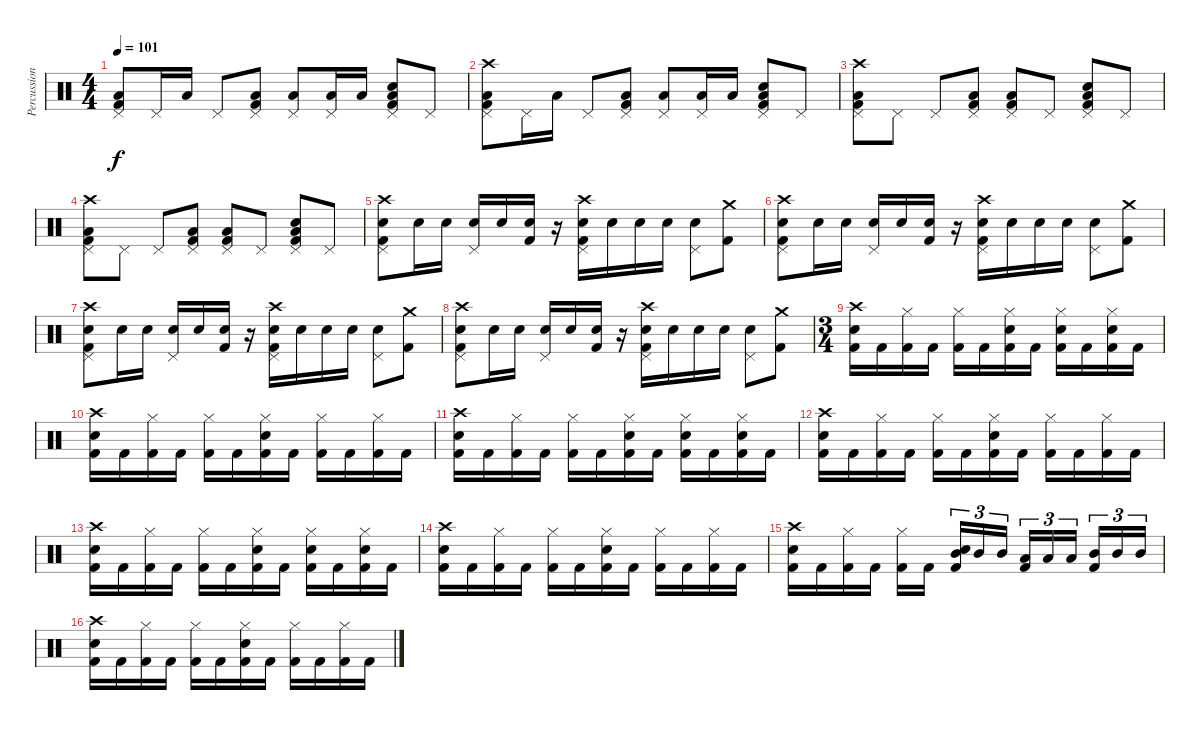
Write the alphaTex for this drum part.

\track ("Percussion" "Percussion") {instrument percussion}
\staff {score}
\articulation defaults
\ts (4 4)
\tempo 101
\clef neutral
\ks c
("Kick (hit) 2" "Low Floor Tom (hit)" "Pedal Hi-Hat (hit)").8{dy f} "Pedal Hi-Hat (hit)".16 "Low Floor Tom (hit)".16 "Pedal Hi-Hat (hit)".8 ("Kick (hit) 2" "Low Floor Tom (hit)" "Pedal Hi-Hat (hit)").8 ("Low Floor Tom (hit)" "Pedal Hi-Hat (hit)").8 ("Low Floor Tom (hit)" "Pedal Hi-Hat (hit)").16 "Low Floor Tom (hit)".16 ("Kick (hit) 2" "Snare (hit) 2" "Low Floor Tom (hit)" "Pedal Hi-Hat (hit)").8 "Pedal Hi-Hat (hit)".8 |
("Kick (hit) 2" "Low Floor Tom (hit)" "Pedal Hi-Hat (hit)" "Crash high (hit)").8 "Pedal Hi-Hat (hit)".16 "Low Floor Tom (hit)".16 "Pedal Hi-Hat (hit)".8 ("Kick (hit) 2" "Low Floor Tom (hit)" "Pedal Hi-Hat (hit)").8 ("Low Floor Tom (hit)" "Pedal Hi-Hat (hit)").8 ("Low Floor Tom (hit)" "Pedal Hi-Hat (hit)").16 "Low Floor Tom (hit)".16 ("Kick (hit) 2" "Snare (hit) 2" "Low Floor Tom (hit)" "Pedal Hi-Hat (hit)").8 "Pedal Hi-Hat (hit)".8 |
("Kick (hit) 2" "Low Floor Tom (hit)" "Pedal Hi-Hat (hit)" "Crash high (hit)").8 "Pedal Hi-Hat (hit)".8 "Pedal Hi-Hat (hit)".8 ("Kick (hit) 2" "Low Floor Tom (hit)" "Pedal Hi-Hat (hit)").8 ("Kick (hit) 2" "Low Floor Tom (hit)" "Pedal Hi-Hat (hit)").8 "Pedal Hi-Hat (hit)".8 ("Kick (hit) 2" "Snare (hit) 2" "Low Floor Tom (hit)" "Pedal Hi-Hat (hit)").8 "Pedal Hi-Hat (hit)".8 |
("Kick (hit) 2" "Low Floor Tom (hit)" "Pedal Hi-Hat (hit)" "Crash high (hit)").8 "Pedal Hi-Hat (hit)".8 "Pedal Hi-Hat (hit)".8 ("Kick (hit) 2" "Low Floor Tom (hit)" "Pedal Hi-Hat (hit)").8 ("Kick (hit) 2" "Low Floor Tom (hit)" "Pedal Hi-Hat (hit)").8 "Pedal Hi-Hat (hit)".8 ("Kick (hit) 2" "Snare (hit) 2" "Low Floor Tom (hit)" "Pedal Hi-Hat (hit)").8 "Pedal Hi-Hat (hit)".8 |
("Kick (hit) 2" "Snare (hit) 2" "Pedal Hi-Hat (hit)" "Crash high (hit)").8 "Snare (hit) 2".16 "Snare (hit) 2".16 ("Snare (hit) 2" "Pedal Hi-Hat (hit)").16 "Snare (hit) 2".16 ("Kick (hit) 2" "Snare (hit) 2").16 r.16 ("Kick (hit) 2" "Snare (hit) 2" "Pedal Hi-Hat (hit)" "Crash high (hit)").16 "Snare (hit) 2".16 "Snare (hit) 2".16 "Snare (hit) 2".16 ("Snare (hit) 2" "Pedal Hi-Hat (hit)").8 ("Kick (hit) 2" "Crash medium (hit)").8 |
("Kick (hit) 2" "Snare (hit) 2" "Pedal Hi-Hat (hit)" "Crash high (hit)").8 "Snare (hit) 2".16 "Snare (hit) 2".16 ("Snare (hit) 2" "Pedal Hi-Hat (hit)").16 "Snare (hit) 2".16 ("Kick (hit) 2" "Snare (hit) 2").16 r.16 ("Kick (hit) 2" "Snare (hit) 2" "Pedal Hi-Hat (hit)" "Crash high (hit)").16 "Snare (hit) 2".16 "Snare (hit) 2".16 "Snare (hit) 2".16 ("Snare (hit) 2" "Pedal Hi-Hat (hit)").8 ("Kick (hit) 2" "Crash medium (hit)").8 |
("Kick (hit) 2" "Snare (hit) 2" "Pedal Hi-Hat (hit)" "Crash high (hit)").8 "Snare (hit) 2".16 "Snare (hit) 2".16 ("Snare (hit) 2" "Pedal Hi-Hat (hit)").16 "Snare (hit) 2".16 ("Kick (hit) 2" "Snare (hit) 2").16 r.16 ("Kick (hit) 2" "Snare (hit) 2" "Pedal Hi-Hat (hit)" "Crash high (hit)").16 "Snare (hit) 2".16 "Snare (hit) 2".16 "Snare (hit) 2".16 ("Snare (hit) 2" "Pedal Hi-Hat (hit)").8 ("Kick (hit) 2" "Crash medium (hit)").8 |
("Kick (hit) 2" "Snare (hit) 2" "Pedal Hi-Hat (hit)" "Crash high (hit)").8 "Snare (hit) 2".16 "Snare (hit) 2".16 ("Snare (hit) 2" "Pedal Hi-Hat (hit)").16 "Snare (hit) 2".16 ("Kick (hit) 2" "Snare (hit) 2").16 r.16 ("Kick (hit) 2" "Snare (hit) 2" "Pedal Hi-Hat (hit)" "Crash high (hit)").16 "Snare (hit) 2".16 "Snare (hit) 2".16 "Snare (hit) 2".16 ("Snare (hit) 2" "Pedal Hi-Hat (hit)").8 ("Kick (hit) 2" "Crash medium (hit)").8 |
\ts (3 4)
("Kick (hit) 2" "Snare (hit) 2" "Crash high (hit)").16 "Kick (hit) 2".16 ("Kick (hit) 2" "Hi-Hat (closed)").16 "Kick (hit) 2".16 ("Kick (hit) 2" "Hi-Hat (closed)").16 "Kick (hit) 2".16 ("Kick (hit) 2" "Snare (hit) 2" "Hi-Hat (closed)").16 "Kick (hit) 2".16 ("Kick (hit) 2" "Snare (hit) 2" "Hi-Hat (closed)").16 "Kick (hit) 2".16 ("Kick (hit) 2" "Snare (hit) 2" "Hi-Hat (closed)").16 "Kick (hit) 2".16 |
("Kick (hit) 2" "Snare (hit) 2" "Crash high (hit)").16 "Kick (hit) 2".16 ("Kick (hit) 2" "Hi-Hat (closed)").16 "Kick (hit) 2".16 ("Kick (hit) 2" "Hi-Hat (closed)").16 "Kick (hit) 2".16 ("Kick (hit) 2" "Snare (hit) 2" "Hi-Hat (closed)").16 "Kick (hit) 2".16 ("Kick (hit) 2" "Hi-Hat (closed)").16 "Kick (hit) 2".16 ("Kick (hit) 2" "Hi-Hat (closed)").16 "Kick (hit) 2".16 |
("Kick (hit) 2" "Snare (hit) 2" "Crash high (hit)").16 "Kick (hit) 2".16 ("Kick (hit) 2" "Hi-Hat (closed)").16 "Kick (hit) 2".16 ("Kick (hit) 2" "Hi-Hat (closed)").16 "Kick (hit) 2".16 ("Kick (hit) 2" "Snare (hit) 2" "Hi-Hat (closed)").16 "Kick (hit) 2".16 ("Kick (hit) 2" "Snare (hit) 2" "Hi-Hat (closed)").16 "Kick (hit) 2".16 ("Kick (hit) 2" "Snare (hit) 2" "Hi-Hat (closed)").16 "Kick (hit) 2".16 |
("Kick (hit) 2" "Snare (hit) 2" "Crash high (hit)").16 "Kick (hit) 2".16 ("Kick (hit) 2" "Hi-Hat (closed)").16 "Kick (hit) 2".16 ("Kick (hit) 2" "Hi-Hat (closed)").16 "Kick (hit) 2".16 ("Kick (hit) 2" "Snare (hit) 2" "Hi-Hat (closed)").16 "Kick (hit) 2".16 ("Kick (hit) 2" "Hi-Hat (closed)").16 "Kick (hit) 2".16 ("Kick (hit) 2" "Hi-Hat (closed)").16 "Kick (hit) 2".16 |
("Kick (hit) 2" "Snare (hit) 2" "Crash high (hit)").16 "Kick (hit) 2".16 ("Kick (hit) 2" "Hi-Hat (closed)").16 "Kick (hit) 2".16 ("Kick (hit) 2" "Hi-Hat (closed)").16 "Kick (hit) 2".16 ("Kick (hit) 2" "Snare (hit) 2" "Hi-Hat (closed)").16 "Kick (hit) 2".16 ("Kick (hit) 2" "Snare (hit) 2" "Hi-Hat (closed)").16 "Kick (hit) 2".16 ("Kick (hit) 2" "Snare (hit) 2" "Hi-Hat (closed)").16 "Kick (hit) 2".16 |
("Kick (hit) 2" "Snare (hit) 2" "Crash high (hit)").16 "Kick (hit) 2".16 ("Kick (hit) 2" "Hi-Hat (closed)").16 "Kick (hit) 2".16 ("Kick (hit) 2" "Hi-Hat (closed)").16 "Kick (hit) 2".16 ("Kick (hit) 2" "Snare (hit) 2" "Hi-Hat (closed)").16 "Kick (hit) 2".16 ("Kick (hit) 2" "Hi-Hat (closed)").16 "Kick (hit) 2".16 ("Kick (hit) 2" "Hi-Hat (closed)").16 "Kick (hit) 2".16 |
("Kick (hit) 2" "Snare (hit) 2" "Crash high (hit)").16 "Kick (hit) 2".16 ("Kick (hit) 2" "Hi-Hat (closed)").16 "Kick (hit) 2".16 ("Kick (hit) 2" "Hi-Hat (closed)").16 "Kick (hit) 2".16 ("Kick (hit) 2" "Snare (hit) 2" "Mid Tom (hit)").16{tu (3 2)} "Mid Tom (hit)".16{tu (3 2)} "Mid Tom (hit)".16{tu (3 2)} ("Kick (hit) 2" "Low Tom (hit)").16{tu (3 2)} "Low Tom (hit)".16{tu (3 2)} "Low Tom (hit)".16{tu (3 2)} ("Kick (hit) 2" "Mid Tom (hit)").16{tu (3 2)} "Mid Tom (hit)".16{tu (3 2)} "Mid Tom (hit)".16{tu (3 2)} |
("Kick (hit) 2" "Snare (hit) 2" "Crash high (hit)").16 "Kick (hit) 2".16 ("Kick (hit) 2" "Hi-Hat (closed)").16 "Kick (hit) 2".16 ("Kick (hit) 2" "Hi-Hat (closed)").16 "Kick (hit) 2".16 ("Kick (hit) 2" "Snare (hit) 2" "Hi-Hat (closed)").16 "Kick (hit) 2".16 ("Kick (hit) 2" "Hi-Hat (closed)").16 "Kick (hit) 2".16 ("Kick (hit) 2" "Hi-Hat (closed)").16 "Kick (hit) 2".16
